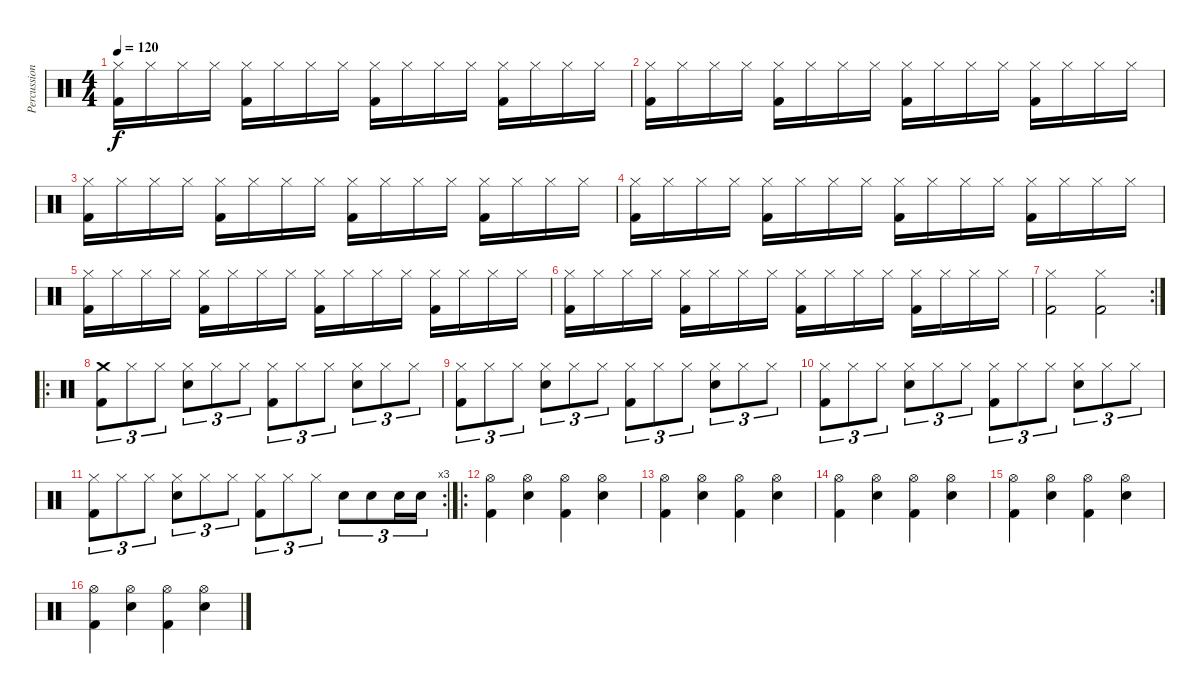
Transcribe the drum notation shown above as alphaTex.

\track ("Percussions" "Percussion") {instrument percussion}
\staff {score}
\articulation defaults
\ts (4 4)
\tempo 120
\clef neutral
\ks c
("Hi-Hat (closed)" "Kick (hit) 2").16{dy f} "Hi-Hat (closed)".16 "Hi-Hat (closed)".16 "Hi-Hat (closed)".16 ("Hi-Hat (closed)" "Kick (hit) 2").16 "Hi-Hat (closed)".16 "Hi-Hat (closed)".16 "Hi-Hat (closed)".16 ("Hi-Hat (closed)" "Kick (hit) 2").16 "Hi-Hat (closed)".16 "Hi-Hat (closed)".16 "Hi-Hat (closed)".16 ("Hi-Hat (closed)" "Kick (hit) 2").16 "Hi-Hat (closed)".16 "Hi-Hat (closed)".16 "Hi-Hat (closed)".16 |
("Hi-Hat (closed)" "Kick (hit) 2").16 "Hi-Hat (closed)".16 "Hi-Hat (closed)".16 "Hi-Hat (closed)".16 ("Hi-Hat (closed)" "Kick (hit) 2").16 "Hi-Hat (closed)".16 "Hi-Hat (closed)".16 "Hi-Hat (closed)".16 ("Hi-Hat (closed)" "Kick (hit) 2").16 "Hi-Hat (closed)".16 "Hi-Hat (closed)".16 "Hi-Hat (closed)".16 ("Hi-Hat (closed)" "Kick (hit) 2").16 "Hi-Hat (closed)".16 "Hi-Hat (closed)".16 "Hi-Hat (closed)".16 |
("Hi-Hat (closed)" "Kick (hit) 2").16 "Hi-Hat (closed)".16 "Hi-Hat (closed)".16 "Hi-Hat (closed)".16 ("Hi-Hat (closed)" "Kick (hit) 2").16 "Hi-Hat (closed)".16 "Hi-Hat (closed)".16 "Hi-Hat (closed)".16 ("Hi-Hat (closed)" "Kick (hit) 2").16 "Hi-Hat (closed)".16 "Hi-Hat (closed)".16 "Hi-Hat (closed)".16 ("Hi-Hat (closed)" "Kick (hit) 2").16 "Hi-Hat (closed)".16 "Hi-Hat (closed)".16 "Hi-Hat (closed)".16 |
("Hi-Hat (closed)" "Kick (hit) 2").16 "Hi-Hat (closed)".16 "Hi-Hat (closed)".16 "Hi-Hat (closed)".16 ("Hi-Hat (closed)" "Kick (hit) 2").16 "Hi-Hat (closed)".16 "Hi-Hat (closed)".16 "Hi-Hat (closed)".16 ("Hi-Hat (closed)" "Kick (hit) 2").16 "Hi-Hat (closed)".16 "Hi-Hat (closed)".16 "Hi-Hat (closed)".16 ("Hi-Hat (closed)" "Kick (hit) 2").16 "Hi-Hat (closed)".16 "Hi-Hat (closed)".16 "Hi-Hat (closed)".16 |
("Hi-Hat (closed)" "Kick (hit) 2").16 "Hi-Hat (closed)".16 "Hi-Hat (closed)".16 "Hi-Hat (closed)".16 ("Hi-Hat (closed)" "Kick (hit) 2").16 "Hi-Hat (closed)".16 "Hi-Hat (closed)".16 "Hi-Hat (closed)".16 ("Hi-Hat (closed)" "Kick (hit) 2").16 "Hi-Hat (closed)".16 "Hi-Hat (closed)".16 "Hi-Hat (closed)".16 ("Hi-Hat (closed)" "Kick (hit) 2").16 "Hi-Hat (closed)".16 "Hi-Hat (closed)".16 "Hi-Hat (closed)".16 |
("Hi-Hat (closed)" "Kick (hit) 2").16 "Hi-Hat (closed)".16 "Hi-Hat (closed)".16 "Hi-Hat (closed)".16 ("Hi-Hat (closed)" "Kick (hit) 2").16 "Hi-Hat (closed)".16 "Hi-Hat (closed)".16 "Hi-Hat (closed)".16 ("Hi-Hat (closed)" "Kick (hit) 2").16 "Hi-Hat (closed)".16 "Hi-Hat (closed)".16 "Hi-Hat (closed)".16 ("Hi-Hat (closed)" "Kick (hit) 2").16 "Hi-Hat (closed)".16 "Hi-Hat (closed)".16 "Hi-Hat (closed)".16 |
\rc 2
("Hi-Hat (closed)" "Kick (hit) 2").2 ("Hi-Hat (closed)" "Kick (hit) 2").2 |
\ro
("Crash medium (hit)" "Kick (hit) 2").8{tu (3 2)} "Hi-Hat (closed)".8{tu (3 2)} "Hi-Hat (closed)".8{tu (3 2)} ("Hi-Hat (closed)" "Electric Snare (hit)").8{tu (3 2)} "Hi-Hat (closed)".8{tu (3 2)} "Hi-Hat (closed)".8{tu (3 2)} ("Hi-Hat (closed)" "Kick (hit) 2").8{tu (3 2)} "Hi-Hat (closed)".8{tu (3 2)} "Hi-Hat (closed)".8{tu (3 2)} ("Hi-Hat (closed)" "Electric Snare (hit)").8{tu (3 2)} "Hi-Hat (closed)".8{tu (3 2)} "Hi-Hat (closed)".8{tu (3 2)} |
("Hi-Hat (closed)" "Kick (hit) 2").8{tu (3 2)} "Hi-Hat (closed)".8{tu (3 2)} "Hi-Hat (closed)".8{tu (3 2)} ("Hi-Hat (closed)" "Electric Snare (hit)").8{tu (3 2)} "Hi-Hat (closed)".8{tu (3 2)} "Hi-Hat (closed)".8{tu (3 2)} ("Hi-Hat (closed)" "Kick (hit) 2").8{tu (3 2)} "Hi-Hat (closed)".8{tu (3 2)} "Hi-Hat (closed)".8{tu (3 2)} ("Hi-Hat (closed)" "Electric Snare (hit)").8{tu (3 2)} "Hi-Hat (closed)".8{tu (3 2)} "Hi-Hat (closed)".8{tu (3 2)} |
("Hi-Hat (closed)" "Kick (hit) 2").8{tu (3 2)} "Hi-Hat (closed)".8{tu (3 2)} "Hi-Hat (closed)".8{tu (3 2)} ("Hi-Hat (closed)" "Electric Snare (hit)").8{tu (3 2)} "Hi-Hat (closed)".8{tu (3 2)} "Hi-Hat (closed)".8{tu (3 2)} ("Hi-Hat (closed)" "Kick (hit) 2").8{tu (3 2)} "Hi-Hat (closed)".8{tu (3 2)} "Hi-Hat (closed)".8{tu (3 2)} ("Hi-Hat (closed)" "Electric Snare (hit)").8{tu (3 2)} "Hi-Hat (closed)".8{tu (3 2)} "Hi-Hat (closed)".8{tu (3 2)} |
\rc 3
("Hi-Hat (closed)" "Kick (hit) 2").8{tu (3 2)} "Hi-Hat (closed)".8{tu (3 2)} "Hi-Hat (closed)".8{tu (3 2)} ("Hi-Hat (closed)" "Electric Snare (hit)").8{tu (3 2)} "Hi-Hat (closed)".8{tu (3 2)} "Hi-Hat (closed)".8{tu (3 2)} ("Hi-Hat (closed)" "Kick (hit) 2").8{tu (3 2)} "Hi-Hat (closed)".8{tu (3 2)} "Hi-Hat (closed)".8{tu (3 2)} "Electric Snare (hit)".8{tu (3 2)} "Electric Snare (hit)".8{tu (3 2)} "Electric Snare (hit)".16{tu (3 2)} "Electric Snare (hit)".16{tu (3 2)} |
\ro
("Hi-Hat (open)" "Kick (hit) 2").4 ("Hi-Hat (open)" "Electric Snare (hit)").4 ("Hi-Hat (open)" "Kick (hit) 2").4 ("Hi-Hat (open)" "Electric Snare (hit)").4 |
("Hi-Hat (open)" "Kick (hit) 2").4 ("Hi-Hat (open)" "Electric Snare (hit)").4 ("Hi-Hat (open)" "Kick (hit) 2").4 ("Hi-Hat (open)" "Electric Snare (hit)").4 |
("Hi-Hat (open)" "Kick (hit) 2").4 ("Hi-Hat (open)" "Electric Snare (hit)").4 ("Hi-Hat (open)" "Kick (hit) 2").4 ("Hi-Hat (open)" "Electric Snare (hit)").4 |
("Hi-Hat (open)" "Kick (hit) 2").4 ("Hi-Hat (open)" "Electric Snare (hit)").4 ("Hi-Hat (open)" "Kick (hit) 2").4 ("Hi-Hat (open)" "Electric Snare (hit)").4 |
("Hi-Hat (open)" "Kick (hit) 2").4 ("Hi-Hat (open)" "Electric Snare (hit)").4 ("Hi-Hat (open)" "Kick (hit) 2").4 ("Hi-Hat (open)" "Electric Snare (hit)").4
